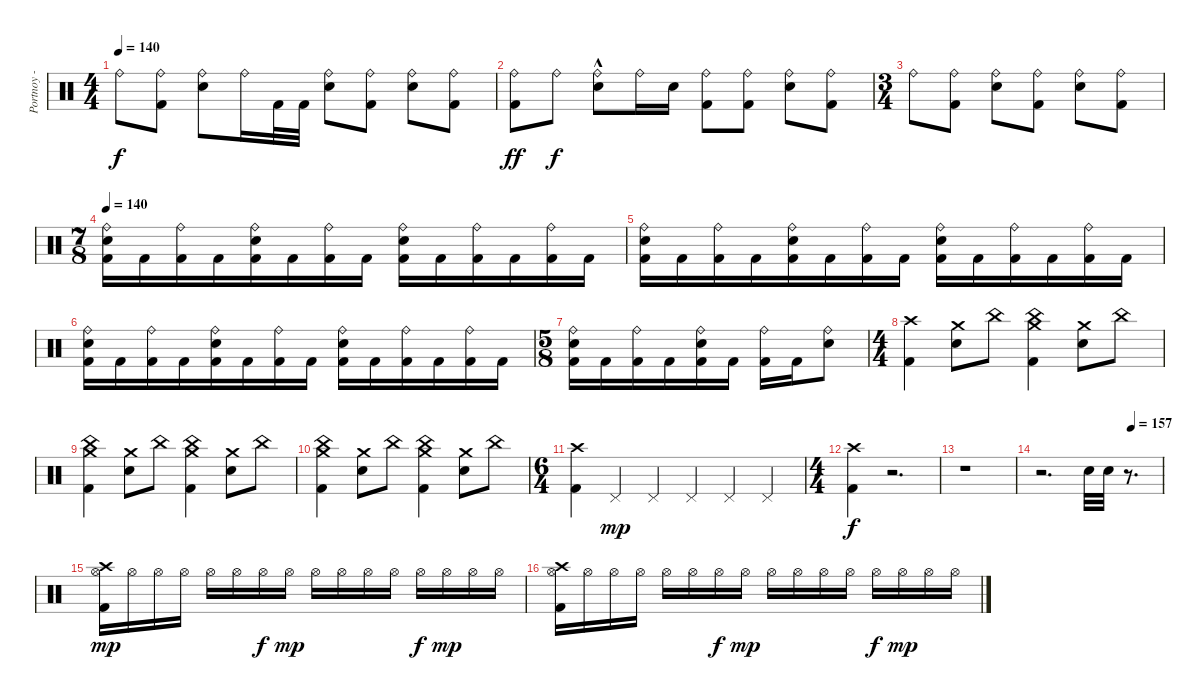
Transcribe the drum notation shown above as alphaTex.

\track ("Portnoy - Drums" "Portnoy - ") {instrument percussion}
\staff {score}
\articulation defaults
\ts (4 4)
\tempo 140
\clef neutral
\ks c "Ride (bell)".8{dy f}
("Kick (hit) 2" "Ride (bell)").8 ("Electric Snare (hit)" "Ride (bell)").8 "Ride (bell)".16 "Kick (hit) 2".32 "Kick (hit) 2".32 ("Electric Snare (hit)" "Ride (bell)").8 ("Kick (hit) 2" "Ride (bell)").8 ("Electric Snare (hit)" "Ride (bell)").8 ("Kick (hit) 2" "Ride (bell)").8 |
("Kick (hit) 2" "Ride (bell)").8{dy ff} "Ride (bell)".8{dy f} ("Electric Snare (hit)"{hac} "Ride (bell)").8 "Ride (bell)".16 "Electric Snare (hit)".16 ("Kick (hit) 2" "Ride (bell)").8 ("Kick (hit) 2" "Ride (bell)").8 ("Electric Snare (hit)" "Ride (bell)").8 ("Kick (hit) 2" "Ride (bell)").8 |
\ts (3 4)
"Ride (bell)".8 ("Kick (hit) 2" "Ride (bell)").8 ("Electric Snare (hit)" "Ride (bell)").8 ("Ride (bell)" "Kick (hit) 2").8 ("Electric Snare (hit)" "Ride (bell)").8 ("Kick (hit) 2" "Ride (bell)").8 |
\ts (7 8)
\tempo 140
("Kick (hit) 2" "Electric Snare (hit)" "Ride (bell)").16 "Kick (hit) 2".16 ("Kick (hit) 2" "Ride (bell)").16 "Kick (hit) 2".16 ("Kick (hit) 2" "Electric Snare (hit)" "Ride (bell)").16 "Kick (hit) 2".16 ("Kick (hit) 2" "Ride (bell)").16 "Kick (hit) 2".16 ("Kick (hit) 2" "Electric Snare (hit)" "Ride (bell)").16 "Kick (hit) 2".16 ("Kick (hit) 2" "Ride (bell)").16 "Kick (hit) 2".16 ("Kick (hit) 2" "Ride (bell)").16 "Kick (hit) 2".16 |
("Kick (hit) 2" "Ride (bell)" "Electric Snare (hit)").16 "Kick (hit) 2".16 ("Kick (hit) 2" "Ride (bell)").16 "Kick (hit) 2".16 ("Kick (hit) 2" "Ride (bell)" "Electric Snare (hit)").16 "Kick (hit) 2".16 ("Kick (hit) 2" "Ride (bell)").16 "Kick (hit) 2".16 ("Kick (hit) 2" "Ride (bell)" "Electric Snare (hit)").16 "Kick (hit) 2".16 ("Kick (hit) 2" "Ride (bell)").16 "Kick (hit) 2".16 ("Kick (hit) 2" "Ride (bell)").16 "Kick (hit) 2".16 |
("Kick (hit) 2" "Ride (bell)" "Electric Snare (hit)").16 "Kick (hit) 2".16 ("Kick (hit) 2" "Ride (bell)").16 "Kick (hit) 2".16 ("Kick (hit) 2" "Electric Snare (hit)" "Ride (bell)").16 "Kick (hit) 2".16 ("Kick (hit) 2" "Ride (bell)").16 "Kick (hit) 2".16 ("Kick (hit) 2" "Electric Snare (hit)" "Ride (bell)").16 "Kick (hit) 2".16 ("Kick (hit) 2" "Ride (bell)").16 "Kick (hit) 2".16 ("Kick (hit) 2" "Ride (bell)").16 "Kick (hit) 2".16 |
\ts (5 8)
("Kick (hit) 2" "Electric Snare (hit)" "Ride (bell)").16 "Kick (hit) 2".16 ("Kick (hit) 2" "Ride (bell)").16 "Kick (hit) 2".16 ("Kick (hit) 2" "Ride (bell)" "Electric Snare (hit)").16 "Kick (hit) 2".16 ("Kick (hit) 2" "Ride (bell)").16 "Kick (hit) 2".16 ("Electric Snare (hit)" "Ride (bell)").8 |
\ts (4 4)
("Crash high (hit)" "Kick (hit) 2").4 ("Electric Snare (hit)" "Crash medium (hit)").8 "China (hit)".8 ("Kick (hit) 2" "Crash medium (hit)" "China (hit)").4 ("Electric Snare (hit)" "Crash medium (hit)").8 "China (hit)".8 |
("Kick (hit) 2" "Crash medium (hit)" "China (hit)").4 ("Electric Snare (hit)" "Crash medium (hit)").8 "China (hit)".8 ("Kick (hit) 2" "Crash medium (hit)" "China (hit)").4 ("Electric Snare (hit)" "Crash medium (hit)").8 "China (hit)".8 |
("Kick (hit) 2" "Crash medium (hit)" "China (hit)").4 ("Electric Snare (hit)" "Crash medium (hit)").8 "China (hit)".8 ("Kick (hit) 2" "Crash medium (hit)" "China (hit)").4 ("Electric Snare (hit)" "Crash medium (hit)").8 "China (hit)".8 |
\ts (6 4)
("Kick (hit) 2" "Crash high (hit)").4 "Pedal Hi-Hat (hit)".4{dy mp} "Pedal Hi-Hat (hit)".4 "Pedal Hi-Hat (hit)".4 "Pedal Hi-Hat (hit)".4 "Pedal Hi-Hat (hit)".4 |
\ts (4 4)
("Kick (hit) 2" "Crash high (hit)").4{dy f} r.2{d} |
r.1 |
\tempo (157 0.75)
r.2{d} "Electric Snare (hit)".32 "Electric Snare (hit)".32 r.8{d} |
("Crash high (hit)" "Kick (hit) 2" "Hi-Hat (open)").16{dy mp} "Hi-Hat (open)".16 "Hi-Hat (open)".16 "Hi-Hat (open)".16 "Hi-Hat (open)".16 "Hi-Hat (open)".16 "Hi-Hat (open)".16{dy f} "Hi-Hat (open)".16{dy mp} "Hi-Hat (open)".16 "Hi-Hat (open)".16 "Hi-Hat (open)".16 "Hi-Hat (open)".16 "Hi-Hat (open)".16{dy f} "Hi-Hat (open)".16{dy mp} "Hi-Hat (open)".16 "Hi-Hat (open)".16 |
("Crash high (hit)" "Kick (hit) 2" "Hi-Hat (open)").16 "Hi-Hat (open)".16 "Hi-Hat (open)".16 "Hi-Hat (open)".16 "Hi-Hat (open)".16 "Hi-Hat (open)".16 "Hi-Hat (open)".16{dy f} "Hi-Hat (open)".16{dy mp} "Hi-Hat (open)".16 "Hi-Hat (open)".16 "Hi-Hat (open)".16 "Hi-Hat (open)".16 "Hi-Hat (open)".16{dy f} "Hi-Hat (open)".16{dy mp} "Hi-Hat (open)".16 "Hi-Hat (open)".16
